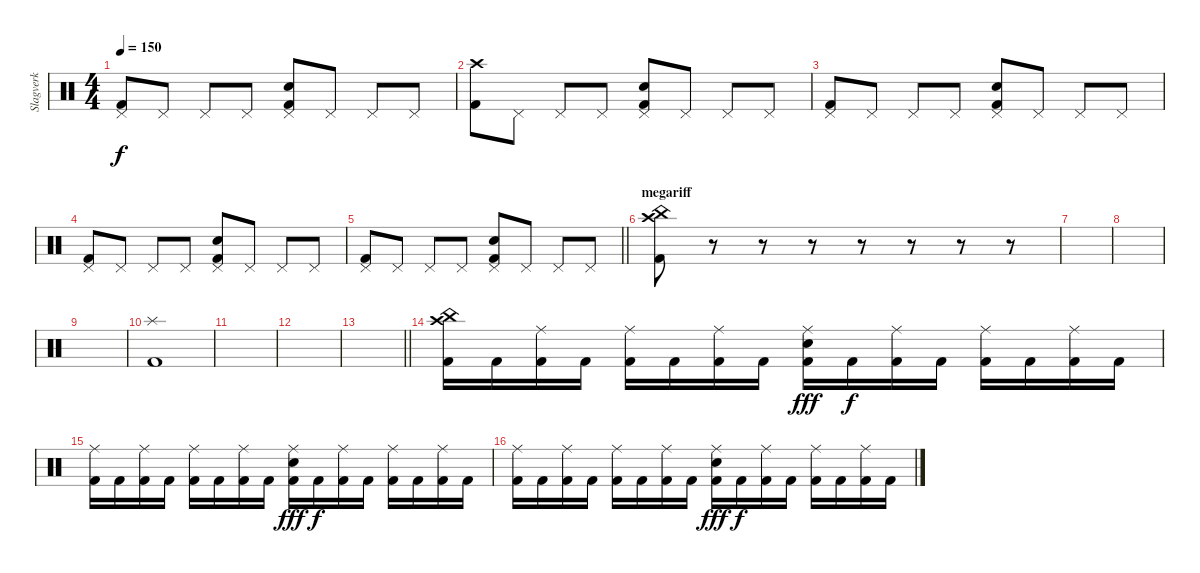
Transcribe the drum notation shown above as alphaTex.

\track ("Slagverk" "Slagverk") {instrument percussion}
\staff {score}
\articulation defaults
\ts (4 4)
\tempo 150
\clef neutral
\ks c
("Pedal Hi-Hat (hit)" "Kick (hit) 2").8{dy f} "Pedal Hi-Hat (hit)".8 "Pedal Hi-Hat (hit)".8 "Pedal Hi-Hat (hit)".8 ("Pedal Hi-Hat (hit)" "Electric Snare (hit)" "Kick (hit) 2").8 "Pedal Hi-Hat (hit)".8 "Pedal Hi-Hat (hit)".8 "Pedal Hi-Hat (hit)".8 |
("Crash high (hit)" "Kick (hit) 2").8 "Pedal Hi-Hat (hit)".8 "Pedal Hi-Hat (hit)".8 "Pedal Hi-Hat (hit)".8 ("Pedal Hi-Hat (hit)" "Electric Snare (hit)" "Kick (hit) 2").8 "Pedal Hi-Hat (hit)".8 "Pedal Hi-Hat (hit)".8 "Pedal Hi-Hat (hit)".8 |
("Pedal Hi-Hat (hit)" "Kick (hit) 2").8 "Pedal Hi-Hat (hit)".8 "Pedal Hi-Hat (hit)".8 "Pedal Hi-Hat (hit)".8 ("Pedal Hi-Hat (hit)" "Electric Snare (hit)" "Kick (hit) 2").8 "Pedal Hi-Hat (hit)".8 "Pedal Hi-Hat (hit)".8 "Pedal Hi-Hat (hit)".8 |
("Pedal Hi-Hat (hit)" "Kick (hit) 2").8 "Pedal Hi-Hat (hit)".8 "Pedal Hi-Hat (hit)".8 "Pedal Hi-Hat (hit)".8 ("Pedal Hi-Hat (hit)" "Electric Snare (hit)" "Kick (hit) 2").8 "Pedal Hi-Hat (hit)".8 "Pedal Hi-Hat (hit)".8 "Pedal Hi-Hat (hit)".8 |
\barLineRight lightlight
("Pedal Hi-Hat (hit)" "Kick (hit) 2").8 "Pedal Hi-Hat (hit)".8 "Pedal Hi-Hat (hit)".8 "Pedal Hi-Hat (hit)".8 ("Pedal Hi-Hat (hit)" "Electric Snare (hit)" "Kick (hit) 2").8 "Pedal Hi-Hat (hit)".8 "Pedal Hi-Hat (hit)".8 "Pedal Hi-Hat (hit)".8 |
\section ("" "megariff")
("Crash high (hit)" "China (hit)" "Kick (hit) 2").8 r.8 r.8 r.8 r.8 r.8 r.8 r.8 |
|
|
|
("Splash (hit)" "Kick (hit) 2").1 |
|
|
\barLineRight lightlight
|
("China (hit)" "Crash high (hit)" "Kick (hit) 2").16 "Kick (hit) 2".16 ("Ride (middle)" "Kick (hit) 2").16 "Kick (hit) 2".16 ("Ride (middle)" "Kick (hit) 2").16 "Kick (hit) 2".16 ("Ride (middle)" "Kick (hit) 2").16 "Kick (hit) 2".16 ("Ride (middle)" "Electric Snare (hit)" "Kick (hit) 2").16{dy fff} "Kick (hit) 2".16{dy f} ("Ride (middle)" "Kick (hit) 2").16 "Kick (hit) 2".16 ("Ride (middle)" "Kick (hit) 2").16 "Kick (hit) 2".16 ("Ride (middle)" "Kick (hit) 2").16 "Kick (hit) 2".16 |
("Ride (middle)" "Kick (hit) 2").16 "Kick (hit) 2".16 ("Ride (middle)" "Kick (hit) 2").16 "Kick (hit) 2".16 ("Ride (middle)" "Kick (hit) 2").16 "Kick (hit) 2".16 ("Ride (middle)" "Kick (hit) 2").16 "Kick (hit) 2".16 ("Ride (middle)" "Electric Snare (hit)" "Kick (hit) 2").16{dy fff} "Kick (hit) 2".16{dy f} ("Ride (middle)" "Kick (hit) 2").16 "Kick (hit) 2".16 ("Ride (middle)" "Kick (hit) 2").16 "Kick (hit) 2".16 ("Ride (middle)" "Kick (hit) 2").16 "Kick (hit) 2".16 |
("Ride (middle)" "Kick (hit) 2").16 "Kick (hit) 2".16 ("Ride (middle)" "Kick (hit) 2").16 "Kick (hit) 2".16 ("Ride (middle)" "Kick (hit) 2").16 "Kick (hit) 2".16 ("Ride (middle)" "Kick (hit) 2").16 "Kick (hit) 2".16 ("Ride (middle)" "Electric Snare (hit)" "Kick (hit) 2").16{dy fff} "Kick (hit) 2".16{dy f} ("Ride (middle)" "Kick (hit) 2").16 "Kick (hit) 2".16 ("Ride (middle)" "Kick (hit) 2").16 "Kick (hit) 2".16 ("Ride (middle)" "Kick (hit) 2").16 "Kick (hit) 2".16
